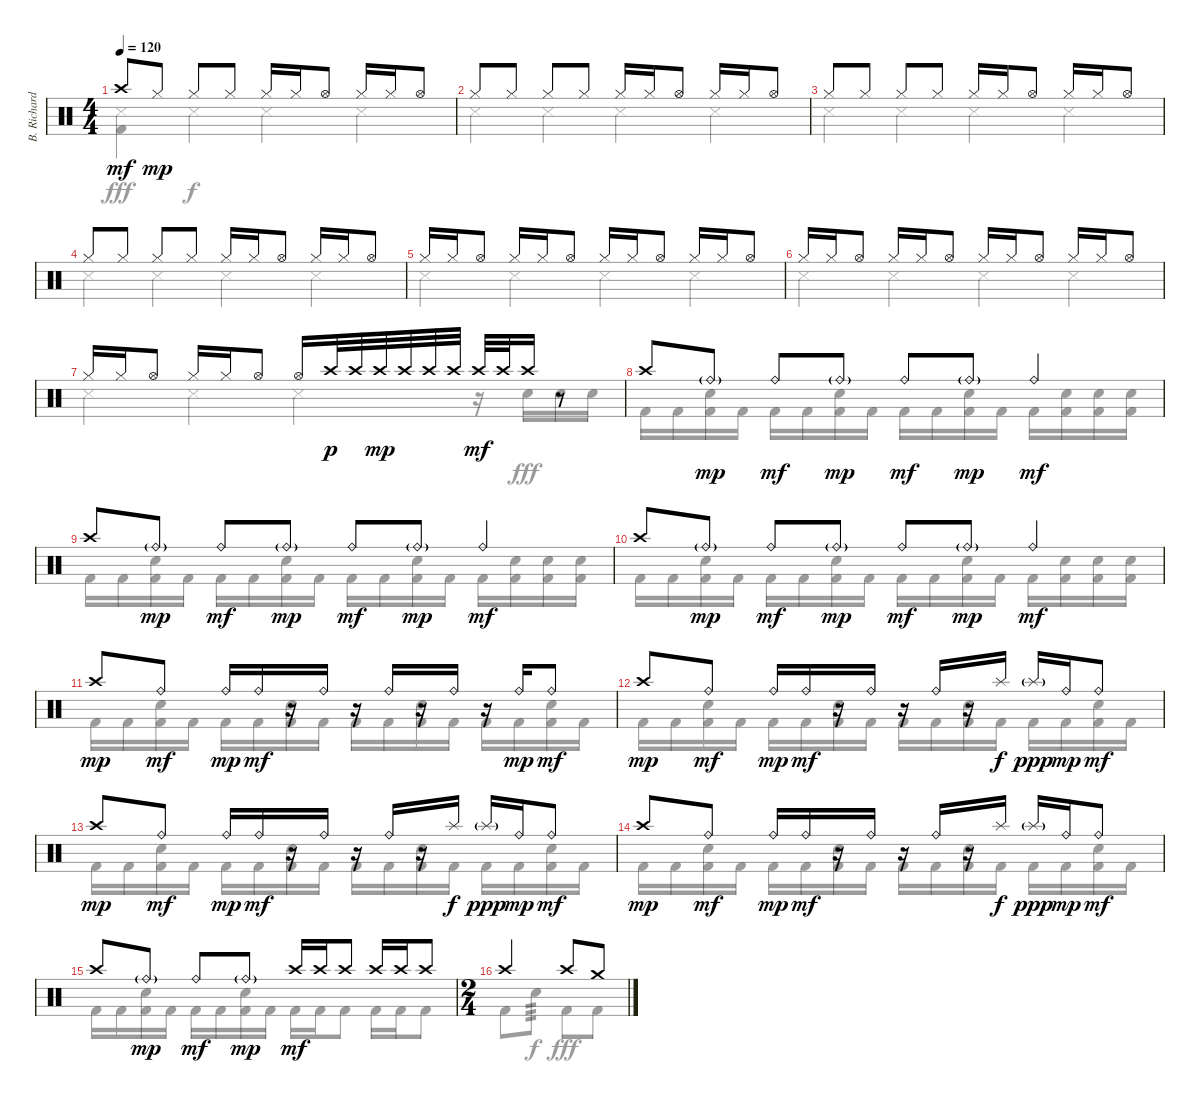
\track ("B. Richardson Drums" "B. Richard") {instrument percussion}
\staff {score}
\articulation defaults
\voice
\ts (4 4)
\tempo 120
\clef neutral
\ks c "Crash high (hit)".8{dy mf} "Hi-Hat (closed)".8{dy mp} "Hi-Hat (closed)".8 "Hi-Hat (closed)".8 "Hi-Hat (closed)".16 "Hi-Hat (closed)".16 "Hi-Hat (open)".8 "Hi-Hat (closed)".16 "Hi-Hat (closed)".16 "Hi-Hat (open)".8
|
"Hi-Hat (closed)".8 "Hi-Hat (closed)".8 "Hi-Hat (closed)".8 "Hi-Hat (closed)".8 "Hi-Hat (closed)".16 "Hi-Hat (closed)".16 "Hi-Hat (open)".8 "Hi-Hat (closed)".16 "Hi-Hat (closed)".16 "Hi-Hat (open)".8 |
"Hi-Hat (closed)".8 "Hi-Hat (closed)".8 "Hi-Hat (closed)".8 "Hi-Hat (closed)".8 "Hi-Hat (closed)".16 "Hi-Hat (closed)".16 "Hi-Hat (open)".8 "Hi-Hat (closed)".16 "Hi-Hat (closed)".16 "Hi-Hat (open)".8 |
"Hi-Hat (closed)".8 "Hi-Hat (closed)".8 "Hi-Hat (closed)".8 "Hi-Hat (closed)".8 "Hi-Hat (closed)".16 "Hi-Hat (closed)".16 "Hi-Hat (open)".8 "Hi-Hat (closed)".16 "Hi-Hat (closed)".16 "Hi-Hat (open)".8 |
"Hi-Hat (closed)".16 "Hi-Hat (closed)".16 "Hi-Hat (open)".8 "Hi-Hat (closed)".16 "Hi-Hat (closed)".16 "Hi-Hat (open)".8 "Hi-Hat (closed)".16 "Hi-Hat (closed)".16 "Hi-Hat (open)".8 "Hi-Hat (closed)".16 "Hi-Hat (closed)".16 "Hi-Hat (open)".8 |
"Hi-Hat (closed)".16 "Hi-Hat (closed)".16 "Hi-Hat (open)".8 "Hi-Hat (closed)".16 "Hi-Hat (closed)".16 "Hi-Hat (open)".8 "Hi-Hat (closed)".16 "Hi-Hat (closed)".16 "Hi-Hat (open)".8 "Hi-Hat (closed)".16 "Hi-Hat (closed)".16 "Hi-Hat (open)".8 |
"Hi-Hat (closed)".16 "Hi-Hat (closed)".16 "Hi-Hat (open)".8 "Hi-Hat (closed)".16 "Hi-Hat (closed)".16 "Hi-Hat (open)".8 "Hi-Hat (open)".16 "Crash high (hit)".32{dy p} "Crash high (hit)".32 "Crash high (hit)".32{dy mp} "Crash high (hit)".32 "Crash high (hit)".32 "Crash high (hit)".32 "Crash high (hit)".32{dy mf} "Crash high (hit)".32 "Crash high (hit)".16 r.8 |
"Crash high (hit)".8 "Ride (bell)"{g}.8{dy mp} "Ride (bell)".8{dy mf} "Ride (bell)"{g}.8{dy mp} "Ride (bell)".8{dy mf} "Ride (bell)"{g}.8{dy mp} "Ride (bell)".4{dy mf} |
"Crash high (hit)".8 "Ride (bell)"{g}.8{dy mp} "Ride (bell)".8{dy mf} "Ride (bell)"{g}.8{dy mp} "Ride (bell)".8{dy mf} "Ride (bell)"{g}.8{dy mp} "Ride (bell)".4{dy mf} |
"Crash high (hit)".8 "Ride (bell)"{g}.8{dy mp} "Ride (bell)".8{dy mf} "Ride (bell)"{g}.8{dy mp} "Ride (bell)".8{dy mf} "Ride (bell)"{g}.8{dy mp} "Ride (bell)".4{dy mf} |
"Crash high (hit)".8{dy mp} "Ride (bell)".8{dy mf} "Ride (bell)".16{dy mp} "Ride (bell)".16{dy mf} r.16 "Ride (bell)".16 r.16 "Ride (bell)".16 r.16 "Ride (bell)".16 r.16 "Ride (bell)".16{dy mp} "Ride (bell)".8{dy mf} |
"Crash high (hit)".8{dy mp} "Ride (bell)".8{dy mf} "Ride (bell)".16{dy mp} "Ride (bell)".16{dy mf} r.16 "Ride (bell)".16 r.16 "Ride (bell)".16 r.16 "Splash (hit)".16{dy f} "Splash (hit)"{g}.16{dy ppp} "Ride (bell)".16{dy mp} "Ride (bell)".8{dy mf} |
"Crash high (hit)".8{dy mp} "Ride (bell)".8{dy mf} "Ride (bell)".16{dy mp} "Ride (bell)".16{dy mf} r.16 "Ride (bell)".16 r.16 "Ride (bell)".16 r.16 "Splash (hit)".16{dy f} "Splash (hit)"{g}.16{dy ppp} "Ride (bell)".16{dy mp} "Ride (bell)".8{dy mf} |
"Crash high (hit)".8{dy mp} "Ride (bell)".8{dy mf} "Ride (bell)".16{dy mp} "Ride (bell)".16{dy mf} r.16 "Ride (bell)".16 r.16 "Ride (bell)".16 r.16 "Splash (hit)".16{dy f} "Splash (hit)"{g}.16{dy ppp} "Ride (bell)".16{dy mp} "Ride (bell)".8{dy mf} |
"Crash high (hit)".8 "Ride (bell)"{g}.8{dy mp} "Ride (bell)".8{dy mf} "Ride (bell)"{g}.8{dy mp} "Crash high (hit)".16{dy mf} "Crash high (hit)".16 "Crash high (hit)".8 "Crash high (hit)".16 "Crash high (hit)".16 "Crash high (hit)".8 |
\ts (2 4)
"Crash high (hit)".4 "Crash high (hit)".8 "Crash medium (hit)".8
\voice
\clef neutral
\ottava regular
\simile none
\ks c
("Snare (side stick) 3" "Kick (hit) 2").4{dy fff} "Snare (side stick) 3".4{dy f} "Snare (side stick) 3".4 "Snare (side stick) 3".4 |
"Snare (side stick) 3".4 "Snare (side stick) 3".4 "Snare (side stick) 3".4 "Snare (side stick) 3".4 |
"Snare (side stick) 3".4 "Snare (side stick) 3".4 "Snare (side stick) 3".4 "Snare (side stick) 3".4 |
"Snare (side stick) 3".4 "Snare (side stick) 3".4 "Snare (side stick) 3".4 "Snare (side stick) 3".4 |
"Snare (side stick) 3".4 "Snare (side stick) 3".4 "Snare (side stick) 3".4 "Snare (side stick) 3".4 |
"Snare (side stick) 3".4 "Snare (side stick) 3".4 "Snare (side stick) 3".4 "Snare (side stick) 3".4 |
"Snare (side stick) 3".4 "Snare (side stick) 3".4 "Snare (side stick) 3".4 r.16 "Electric Snare (hit)".16{dy fff} "Electric Snare (hit)".16 "Electric Snare (hit)".16 |
"Kick (hit) 2".16 "Kick (hit) 2".16 ("Electric Snare (hit)" "Kick (hit) 2").16 "Kick (hit) 2".16 "Kick (hit) 2".16 "Kick (hit) 2".16 ("Electric Snare (hit)" "Kick (hit) 2").16 "Kick (hit) 2".16 "Kick (hit) 2".16 "Kick (hit) 2".16 ("Electric Snare (hit)" "Kick (hit) 2").16 "Kick (hit) 2".16 "Kick (hit) 2".16 ("Electric Snare (hit)" "Kick (hit) 2").16 ("Electric Snare (hit)" "Kick (hit) 2").16 ("Electric Snare (hit)" "Kick (hit) 2").16 |
"Kick (hit) 2".16 "Kick (hit) 2".16 ("Electric Snare (hit)" "Kick (hit) 2").16 "Kick (hit) 2".16 "Kick (hit) 2".16 "Kick (hit) 2".16 ("Electric Snare (hit)" "Kick (hit) 2").16 "Kick (hit) 2".16 "Kick (hit) 2".16 "Kick (hit) 2".16 ("Electric Snare (hit)" "Kick (hit) 2").16 "Kick (hit) 2".16 "Kick (hit) 2".16 ("Electric Snare (hit)" "Kick (hit) 2").16 ("Electric Snare (hit)" "Kick (hit) 2").16 ("Electric Snare (hit)" "Kick (hit) 2").16 |
"Kick (hit) 2".16 "Kick (hit) 2".16 ("Electric Snare (hit)" "Kick (hit) 2").16 "Kick (hit) 2".16 "Kick (hit) 2".16 "Kick (hit) 2".16 ("Electric Snare (hit)" "Kick (hit) 2").16 "Kick (hit) 2".16 "Kick (hit) 2".16 "Kick (hit) 2".16 ("Electric Snare (hit)" "Kick (hit) 2").16 "Kick (hit) 2".16 "Kick (hit) 2".16 ("Electric Snare (hit)" "Kick (hit) 2").16 ("Electric Snare (hit)" "Kick (hit) 2").16 ("Electric Snare (hit)" "Kick (hit) 2").16 |
"Kick (hit) 2".16 "Kick (hit) 2".16 ("Electric Snare (hit)" "Kick (hit) 2").16 "Kick (hit) 2".16 "Kick (hit) 2".16 "Kick (hit) 2".16 ("Electric Snare (hit)" "Kick (hit) 2").16 "Kick (hit) 2".16 "Kick (hit) 2".16 "Kick (hit) 2".16 ("Electric Snare (hit)" "Kick (hit) 2").16 "Kick (hit) 2".16 "Kick (hit) 2".16 "Kick (hit) 2".16 ("Electric Snare (hit)" "Kick (hit) 2").16 "Kick (hit) 2".16 |
"Kick (hit) 2".16 "Kick (hit) 2".16 ("Electric Snare (hit)" "Kick (hit) 2").16 "Kick (hit) 2".16 "Kick (hit) 2".16 "Kick (hit) 2".16 ("Electric Snare (hit)" "Kick (hit) 2").16 "Kick (hit) 2".16 "Kick (hit) 2".16 "Kick (hit) 2".16 ("Electric Snare (hit)" "Kick (hit) 2").16 "Kick (hit) 2".16 "Kick (hit) 2".16 "Kick (hit) 2".16 ("Electric Snare (hit)" "Kick (hit) 2").16 "Kick (hit) 2".16 |
"Kick (hit) 2".16 "Kick (hit) 2".16 ("Electric Snare (hit)" "Kick (hit) 2").16 "Kick (hit) 2".16 "Kick (hit) 2".16 "Kick (hit) 2".16 ("Electric Snare (hit)" "Kick (hit) 2").16 "Kick (hit) 2".16 "Kick (hit) 2".16 "Kick (hit) 2".16 ("Electric Snare (hit)" "Kick (hit) 2").16 "Kick (hit) 2".16 "Kick (hit) 2".16 "Kick (hit) 2".16 ("Electric Snare (hit)" "Kick (hit) 2").16 "Kick (hit) 2".16 |
"Kick (hit) 2".16 "Kick (hit) 2".16 ("Electric Snare (hit)" "Kick (hit) 2").16 "Kick (hit) 2".16 "Kick (hit) 2".16 "Kick (hit) 2".16 ("Electric Snare (hit)" "Kick (hit) 2").16 "Kick (hit) 2".16 "Kick (hit) 2".16 "Kick (hit) 2".16 ("Electric Snare (hit)" "Kick (hit) 2").16 "Kick (hit) 2".16 "Kick (hit) 2".16 "Kick (hit) 2".16 ("Electric Snare (hit)" "Kick (hit) 2").16 "Kick (hit) 2".16 |
"Kick (hit) 2".16 "Kick (hit) 2".16 ("Electric Snare (hit)" "Kick (hit) 2").16 "Kick (hit) 2".16 "Kick (hit) 2".16 "Kick (hit) 2".16 ("Electric Snare (hit)" "Kick (hit) 2").16 "Kick (hit) 2".16 "Kick (hit) 2".16 "Kick (hit) 2".16 "Kick (hit) 2".8 "Kick (hit) 2".16 "Kick (hit) 2".16 "Kick (hit) 2".8 |
"Kick (hit) 2".8 "Electric Snare (hit)".8{tp 3 dy f} "Kick (hit) 2".8{dy fff} "Kick (hit) 2".8
